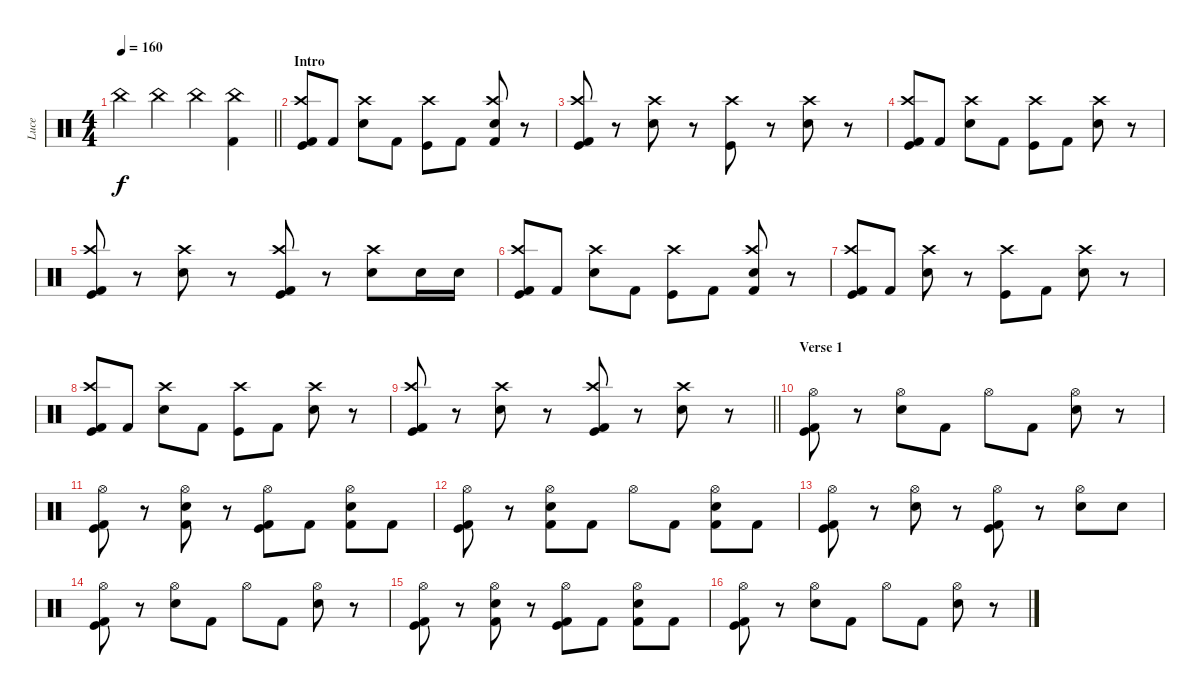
\track ("Luce" "Luce") {instrument percussion}
\staff {score}
\articulation defaults
\ts (4 4)
\tempo 160
\clef neutral
\barLineRight lightlight
\ks c "China (hit)".4{dy f} "China (hit)".4 "China (hit)".4
("China (hit)" "Kick (hit) 2").4 |
\section ("" "Intro")
("Crash high (hit)" "Kick (hit) 2" "Kick (hit)").8 "Kick (hit) 2".8 ("Crash high (hit)" "Snare (hit) 2").8 "Kick (hit) 2".8 ("Crash high (hit)" "Kick (hit)").8 "Kick (hit) 2".8 ("Crash high (hit)" "Kick (hit) 2" "Snare (hit) 2").8 r.8 |
("Crash high (hit)" "Kick (hit) 2" "Kick (hit)").8 r.8 ("Crash high (hit)" "Snare (hit) 2").8 r.8 ("Crash high (hit)" "Kick (hit)").8 r.8 ("Crash high (hit)" "Snare (hit) 2").8 r.8 |
("Crash high (hit)" "Kick (hit) 2" "Kick (hit)").8 "Kick (hit) 2".8 ("Crash high (hit)" "Snare (hit) 2").8 "Kick (hit) 2".8 ("Crash high (hit)" "Kick (hit)").8 "Kick (hit) 2".8 ("Crash high (hit)" "Snare (hit) 2").8 r.8 |
("Crash high (hit)" "Kick (hit) 2" "Kick (hit)").8 r.8 ("Crash high (hit)" "Snare (hit) 2").8 r.8 ("Crash high (hit)" "Kick (hit) 2" "Kick (hit)").8 r.8 ("Crash high (hit)" "Snare (hit) 2").8 "Snare (hit) 2".16 "Snare (hit) 2".16 |
("Crash high (hit)" "Kick (hit) 2" "Kick (hit)").8 "Kick (hit) 2".8 ("Crash high (hit)" "Snare (hit) 2").8 "Kick (hit) 2".8 ("Crash high (hit)" "Kick (hit)").8 "Kick (hit) 2".8 ("Crash high (hit)" "Kick (hit) 2" "Snare (hit) 2").8 r.8 |
("Crash high (hit)" "Kick (hit) 2" "Kick (hit)").8 "Kick (hit) 2".8 ("Crash high (hit)" "Snare (hit) 2").8 r.8 ("Crash high (hit)" "Kick (hit)").8 "Kick (hit) 2".8 ("Crash high (hit)" "Snare (hit) 2").8 r.8 |
("Crash high (hit)" "Kick (hit) 2" "Kick (hit)").8 "Kick (hit) 2".8 ("Crash high (hit)" "Snare (hit) 2").8 "Kick (hit) 2".8 ("Crash high (hit)" "Kick (hit)").8 "Kick (hit) 2".8 ("Crash high (hit)" "Snare (hit) 2").8 r.8 |
\barLineRight lightlight
("Crash high (hit)" "Kick (hit) 2" "Kick (hit)").8 r.8 ("Crash high (hit)" "Snare (hit) 2").8 r.8 ("Crash high (hit)" "Kick (hit) 2" "Kick (hit)").8 r.8 ("Crash high (hit)" "Snare (hit) 2").8 r.8 |
\section ("" "Verse 1")
("Hi-Hat (open)" "Kick (hit) 2" "Kick (hit)").8 r.8 ("Hi-Hat (open)" "Snare (hit) 2").8 "Kick (hit) 2".8 "Hi-Hat (open)".8 "Kick (hit) 2".8 ("Hi-Hat (open)" "Snare (hit) 2").8 r.8 |
("Hi-Hat (open)" "Kick (hit) 2" "Kick (hit)").8 r.8 ("Hi-Hat (open)" "Kick (hit) 2" "Snare (hit) 2").8 r.8 ("Hi-Hat (open)" "Kick (hit) 2" "Kick (hit)").8 "Kick (hit) 2".8 ("Hi-Hat (open)" "Kick (hit) 2" "Snare (hit) 2").8 "Kick (hit) 2".8 |
("Hi-Hat (open)" "Kick (hit) 2" "Kick (hit)").8 r.8 ("Hi-Hat (open)" "Kick (hit) 2" "Snare (hit) 2").8 "Kick (hit) 2".8 "Hi-Hat (open)".8 "Kick (hit) 2".8 ("Hi-Hat (open)" "Kick (hit) 2" "Snare (hit) 2").8 "Kick (hit) 2".8 |
("Hi-Hat (open)" "Kick (hit) 2" "Kick (hit)").8 r.8 ("Hi-Hat (open)" "Snare (hit) 2").8 r.8 ("Hi-Hat (open)" "Kick (hit) 2" "Kick (hit)").8 r.8 ("Hi-Hat (open)" "Snare (hit) 2").8 "Snare (hit) 2".8 |
("Hi-Hat (open)" "Kick (hit) 2" "Kick (hit)").8 r.8 ("Hi-Hat (open)" "Snare (hit) 2").8 "Kick (hit) 2".8 "Hi-Hat (open)".8 "Kick (hit) 2".8 ("Hi-Hat (open)" "Snare (hit) 2").8 r.8 |
("Hi-Hat (open)" "Kick (hit) 2" "Kick (hit)").8 r.8 ("Hi-Hat (open)" "Kick (hit) 2" "Snare (hit) 2").8 r.8 ("Hi-Hat (open)" "Kick (hit) 2" "Kick (hit)").8 "Kick (hit) 2".8 ("Hi-Hat (open)" "Kick (hit) 2" "Snare (hit) 2").8 "Kick (hit) 2".8 |
("Hi-Hat (open)" "Kick (hit) 2" "Kick (hit)").8 r.8 ("Hi-Hat (open)" "Snare (hit) 2").8 "Kick (hit) 2".8 "Hi-Hat (open)".8 "Kick (hit) 2".8 ("Hi-Hat (open)" "Snare (hit) 2").8 r.8
